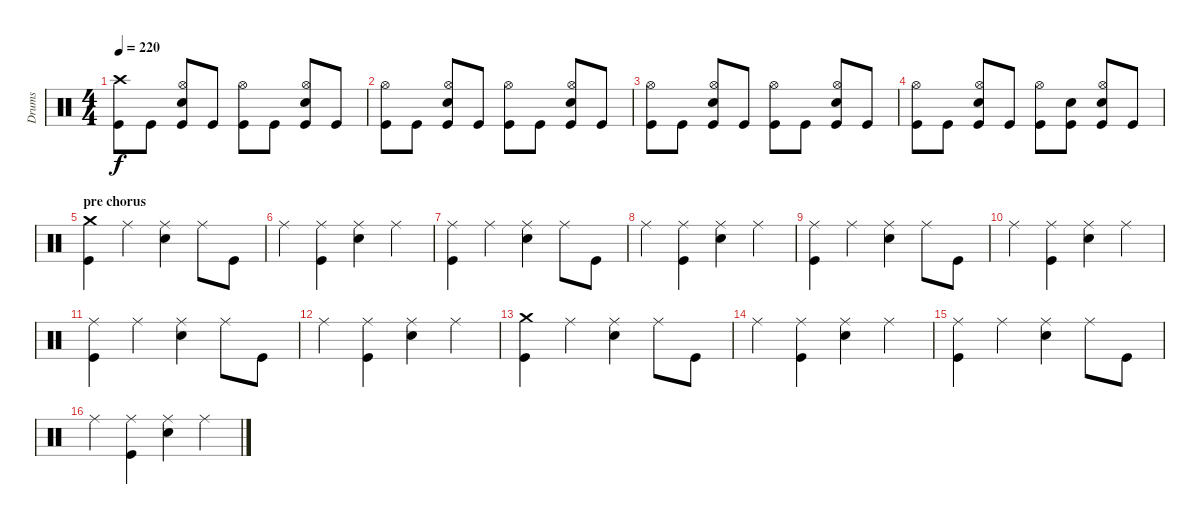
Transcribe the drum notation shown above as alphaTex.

\track ("Drums" "Drums") {instrument percussion}
\staff {score}
\articulation defaults
\ts (4 4)
\tempo 220
\clef neutral
\ks c
("Crash high (hit)" "Kick (hit)").8{dy f} "Kick (hit)".8 ("Hi-Hat (open)" "Electric Snare (hit)" "Kick (hit)").8 "Kick (hit)".8 ("Hi-Hat (open)" "Kick (hit)").8 "Kick (hit)".8 ("Hi-Hat (open)" "Electric Snare (hit)" "Kick (hit)").8 "Kick (hit)".8 |
("Hi-Hat (open)" "Kick (hit)").8 "Kick (hit)".8 ("Hi-Hat (open)" "Electric Snare (hit)" "Kick (hit)").8 "Kick (hit)".8 ("Hi-Hat (open)" "Kick (hit)").8 "Kick (hit)".8 ("Hi-Hat (open)" "Electric Snare (hit)" "Kick (hit)").8 "Kick (hit)".8 |
("Hi-Hat (open)" "Kick (hit)").8 "Kick (hit)".8 ("Hi-Hat (open)" "Electric Snare (hit)" "Kick (hit)").8 "Kick (hit)".8 ("Hi-Hat (open)" "Kick (hit)").8 "Kick (hit)".8 ("Hi-Hat (open)" "Electric Snare (hit)" "Kick (hit)").8 "Kick (hit)".8 |
("Hi-Hat (open)" "Kick (hit)").8 "Kick (hit)".8 ("Hi-Hat (open)" "Electric Snare (hit)" "Kick (hit)").8 "Kick (hit)".8 ("Hi-Hat (open)" "Kick (hit)").8 ("Electric Snare (hit)" "Kick (hit)").8 ("Hi-Hat (open)" "Electric Snare (hit)" "Kick (hit)").8 "Kick (hit)".8 |
\section ("" "pre chorus")
("Crash medium (hit)" "Kick (hit)").4 "Ride (middle)".4 ("Ride (middle)" "Electric Snare (hit)").4 "Ride (middle)".8 "Kick (hit)".8 |
"Ride (middle)".4 ("Ride (middle)" "Kick (hit)").4 ("Ride (middle)" "Electric Snare (hit)").4 "Ride (middle)".4 |
("Ride (middle)" "Kick (hit)").4 "Ride (middle)".4 ("Ride (middle)" "Electric Snare (hit)").4 "Ride (middle)".8 "Kick (hit)".8 |
"Ride (middle)".4 ("Ride (middle)" "Kick (hit)").4 ("Ride (middle)" "Electric Snare (hit)").4 "Ride (middle)".4 |
("Ride (middle)" "Kick (hit)").4 "Ride (middle)".4 ("Ride (middle)" "Electric Snare (hit)").4 "Ride (middle)".8 "Kick (hit)".8 |
"Ride (middle)".4 ("Ride (middle)" "Kick (hit)").4 ("Ride (middle)" "Electric Snare (hit)").4 "Ride (middle)".4 |
("Ride (middle)" "Kick (hit)").4 "Ride (middle)".4 ("Ride (middle)" "Electric Snare (hit)").4 "Ride (middle)".8 "Kick (hit)".8 |
"Ride (middle)".4 ("Ride (middle)" "Kick (hit)").4 ("Ride (middle)" "Electric Snare (hit)").4 "Ride (middle)".4 |
("Crash medium (hit)" "Kick (hit)").4 "Ride (middle)".4 ("Ride (middle)" "Electric Snare (hit)").4 "Ride (middle)".8 "Kick (hit)".8 |
"Ride (middle)".4 ("Ride (middle)" "Kick (hit)").4 ("Ride (middle)" "Electric Snare (hit)").4 "Ride (middle)".4 |
("Ride (middle)" "Kick (hit)").4 "Ride (middle)".4 ("Ride (middle)" "Electric Snare (hit)").4 "Ride (middle)".8 "Kick (hit)".8 |
"Ride (middle)".4 ("Ride (middle)" "Kick (hit)").4 ("Ride (middle)" "Electric Snare (hit)").4 "Ride (middle)".4
